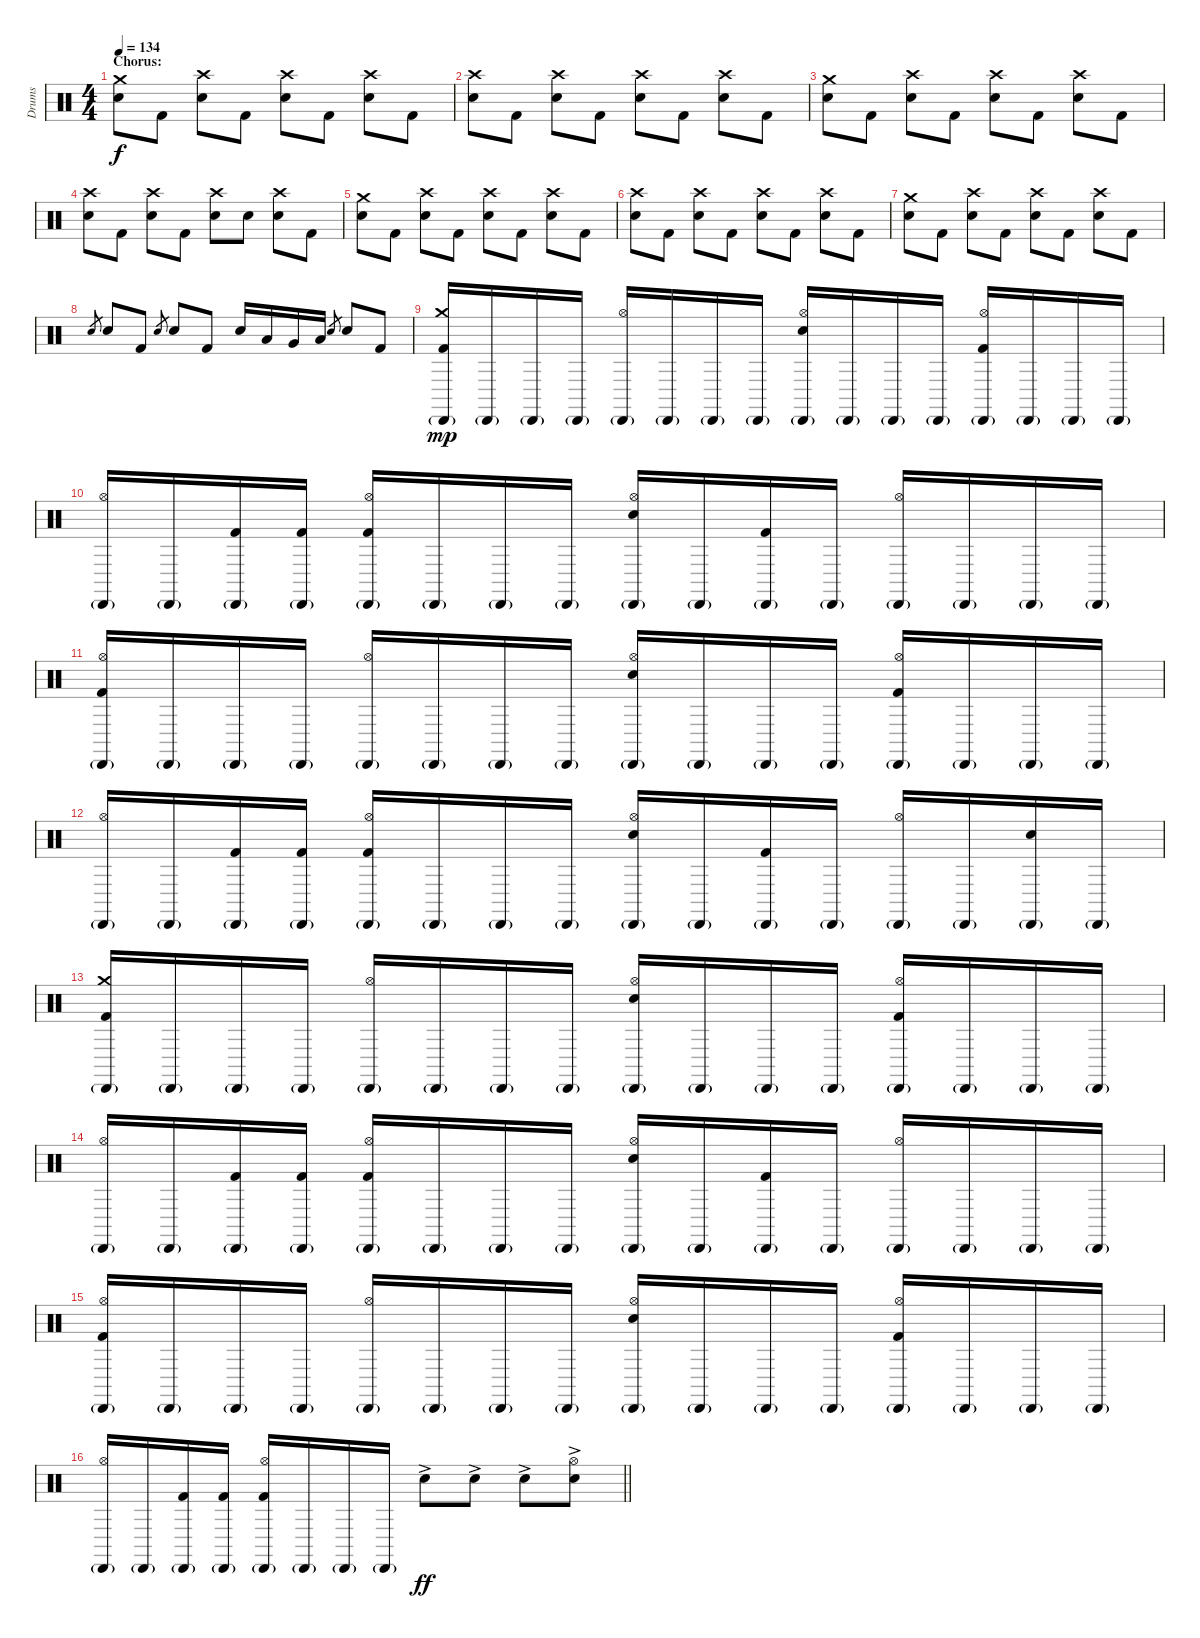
\track ("Drums" "Drums") {instrument percussion}
\staff {score}
\articulation defaults
\ts (4 4)
\section ("" "Chorus:")
\tempo 134
\clef neutral
\ks c
("Crash medium (hit)" "Electric Snare (hit)").8{dy f} "Kick (hit) 2".8 ("Crash high (hit)" "Electric Snare (hit)").8 "Kick (hit) 2".8 ("Crash high (hit)" "Electric Snare (hit)").8 "Kick (hit) 2".8 ("Crash high (hit)" "Electric Snare (hit)").8 "Kick (hit) 2".8 |
("Crash high (hit)" "Electric Snare (hit)").8 "Kick (hit) 2".8 ("Crash high (hit)" "Electric Snare (hit)").8 "Kick (hit) 2".8 ("Crash high (hit)" "Electric Snare (hit)").8 "Kick (hit) 2".8 ("Crash high (hit)" "Electric Snare (hit)").8 "Kick (hit) 2".8 |
("Crash medium (hit)" "Electric Snare (hit)").8 "Kick (hit) 2".8 ("Crash high (hit)" "Electric Snare (hit)").8 "Kick (hit) 2".8 ("Crash high (hit)" "Electric Snare (hit)").8 "Kick (hit) 2".8 ("Crash high (hit)" "Electric Snare (hit)").8 "Kick (hit) 2".8 |
("Crash high (hit)" "Electric Snare (hit)").8 "Kick (hit) 2".8 ("Crash high (hit)" "Electric Snare (hit)").8 "Kick (hit) 2".8 ("Crash high (hit)" "Electric Snare (hit)").8 "Electric Snare (hit)".8 ("Crash high (hit)" "Electric Snare (hit)").8 "Kick (hit) 2".8 |
("Crash medium (hit)" "Electric Snare (hit)").8 "Kick (hit) 2".8 ("Crash high (hit)" "Electric Snare (hit)").8 "Kick (hit) 2".8 ("Crash high (hit)" "Electric Snare (hit)").8 "Kick (hit) 2".8 ("Crash high (hit)" "Electric Snare (hit)").8 "Kick (hit) 2".8 |
("Crash high (hit)" "Electric Snare (hit)").8 "Kick (hit) 2".8 ("Crash high (hit)" "Electric Snare (hit)").8 "Kick (hit) 2".8 ("Crash high (hit)" "Electric Snare (hit)").8 "Kick (hit) 2".8 ("Crash high (hit)" "Electric Snare (hit)").8 "Kick (hit) 2".8 |
("Crash medium (hit)" "Electric Snare (hit)").8 "Kick (hit) 2".8 ("Crash high (hit)" "Electric Snare (hit)").8 "Kick (hit) 2".8 ("Crash high (hit)" "Electric Snare (hit)").8 "Kick (hit) 2".8 ("Crash high (hit)" "Electric Snare (hit)").8 "Kick (hit) 2".8 |
"Electric Snare (hit)".8{gr} "Electric Snare (hit)".8 "Kick (hit) 2".8 "Electric Snare (hit)".8{gr} "Electric Snare (hit)".8 "Kick (hit) 2".8 "Electric Snare (hit)".16 "Low Tom (hit)".16 "Very Low Tom (hit)".16 "Low Floor Tom (hit)".16 "Electric Snare (hit)".8{gr} "Electric Snare (hit)".8 "Kick (hit) 2".8 |
("Crash medium (hit)" "Cabasa (hit)"{g} "Kick (hit) 2").16{dy mp} "Cabasa (hit)"{g}.16 "Cabasa (hit)"{g}.16 "Cabasa (hit)"{g}.16 ("Hi-Hat (open)" "Cabasa (hit)"{g}).16 "Cabasa (hit)"{g}.16 "Cabasa (hit)"{g}.16 "Cabasa (hit)"{g}.16 ("Hi-Hat (open)" "Cabasa (hit)"{g} "Electric Snare (hit)").16 "Cabasa (hit)"{g}.16 "Cabasa (hit)"{g}.16 "Cabasa (hit)"{g}.16 ("Hi-Hat (open)" "Cabasa (hit)"{g} "Kick (hit) 2").16 "Cabasa (hit)"{g}.16 "Cabasa (hit)"{g}.16 "Cabasa (hit)"{g}.16 |
("Hi-Hat (open)" "Cabasa (hit)"{g}).16 "Cabasa (hit)"{g}.16 ("Cabasa (hit)"{g} "Kick (hit) 2").16 ("Cabasa (hit)"{g} "Kick (hit) 2").16 ("Hi-Hat (open)" "Cabasa (hit)"{g} "Kick (hit) 2").16 "Cabasa (hit)"{g}.16 "Cabasa (hit)"{g}.16 "Cabasa (hit)"{g}.16 ("Hi-Hat (open)" "Cabasa (hit)"{g} "Electric Snare (hit)").16 "Cabasa (hit)"{g}.16 ("Cabasa (hit)"{g} "Kick (hit) 2").16 "Cabasa (hit)"{g}.16 ("Hi-Hat (open)" "Cabasa (hit)"{g}).16 "Cabasa (hit)"{g}.16 "Cabasa (hit)"{g}.16 "Cabasa (hit)"{g}.16 |
("Hi-Hat (open)" "Cabasa (hit)"{g} "Kick (hit) 2").16 "Cabasa (hit)"{g}.16 "Cabasa (hit)"{g}.16 "Cabasa (hit)"{g}.16 ("Hi-Hat (open)" "Cabasa (hit)"{g}).16 "Cabasa (hit)"{g}.16 "Cabasa (hit)"{g}.16 "Cabasa (hit)"{g}.16 ("Hi-Hat (open)" "Cabasa (hit)"{g} "Electric Snare (hit)").16 "Cabasa (hit)"{g}.16 "Cabasa (hit)"{g}.16 "Cabasa (hit)"{g}.16 ("Hi-Hat (open)" "Cabasa (hit)"{g} "Kick (hit) 2").16 "Cabasa (hit)"{g}.16 "Cabasa (hit)"{g}.16 "Cabasa (hit)"{g}.16 |
("Hi-Hat (open)" "Cabasa (hit)"{g}).16 "Cabasa (hit)"{g}.16 ("Cabasa (hit)"{g} "Kick (hit) 2").16 ("Cabasa (hit)"{g} "Kick (hit) 2").16 ("Hi-Hat (open)" "Cabasa (hit)"{g} "Kick (hit) 2").16 "Cabasa (hit)"{g}.16 "Cabasa (hit)"{g}.16 "Cabasa (hit)"{g}.16 ("Hi-Hat (open)" "Cabasa (hit)"{g} "Electric Snare (hit)").16 "Cabasa (hit)"{g}.16 ("Cabasa (hit)"{g} "Kick (hit) 2").16 "Cabasa (hit)"{g}.16 ("Hi-Hat (open)" "Cabasa (hit)"{g}).16 "Cabasa (hit)"{g}.16 ("Cabasa (hit)"{g} "Electric Snare (hit)").16 "Cabasa (hit)"{g}.16 |
("Crash medium (hit)" "Cabasa (hit)"{g} "Kick (hit) 2").16 "Cabasa (hit)"{g}.16 "Cabasa (hit)"{g}.16 "Cabasa (hit)"{g}.16 ("Hi-Hat (open)" "Cabasa (hit)"{g}).16 "Cabasa (hit)"{g}.16 "Cabasa (hit)"{g}.16 "Cabasa (hit)"{g}.16 ("Hi-Hat (open)" "Cabasa (hit)"{g} "Electric Snare (hit)").16 "Cabasa (hit)"{g}.16 "Cabasa (hit)"{g}.16 "Cabasa (hit)"{g}.16 ("Hi-Hat (open)" "Cabasa (hit)"{g} "Kick (hit) 2").16 "Cabasa (hit)"{g}.16 "Cabasa (hit)"{g}.16 "Cabasa (hit)"{g}.16 |
("Hi-Hat (open)" "Cabasa (hit)"{g}).16 "Cabasa (hit)"{g}.16 ("Cabasa (hit)"{g} "Kick (hit) 2").16 ("Cabasa (hit)"{g} "Kick (hit) 2").16 ("Hi-Hat (open)" "Cabasa (hit)"{g} "Kick (hit) 2").16 "Cabasa (hit)"{g}.16 "Cabasa (hit)"{g}.16 "Cabasa (hit)"{g}.16 ("Hi-Hat (open)" "Cabasa (hit)"{g} "Electric Snare (hit)").16 "Cabasa (hit)"{g}.16 ("Cabasa (hit)"{g} "Kick (hit) 2").16 "Cabasa (hit)"{g}.16 ("Hi-Hat (open)" "Cabasa (hit)"{g}).16 "Cabasa (hit)"{g}.16 "Cabasa (hit)"{g}.16 "Cabasa (hit)"{g}.16 |
("Hi-Hat (open)" "Cabasa (hit)"{g} "Kick (hit) 2").16 "Cabasa (hit)"{g}.16 "Cabasa (hit)"{g}.16 "Cabasa (hit)"{g}.16 ("Hi-Hat (open)" "Cabasa (hit)"{g}).16 "Cabasa (hit)"{g}.16 "Cabasa (hit)"{g}.16 "Cabasa (hit)"{g}.16 ("Hi-Hat (open)" "Cabasa (hit)"{g} "Electric Snare (hit)").16 "Cabasa (hit)"{g}.16 "Cabasa (hit)"{g}.16 "Cabasa (hit)"{g}.16 ("Hi-Hat (open)" "Cabasa (hit)"{g} "Kick (hit) 2").16 "Cabasa (hit)"{g}.16 "Cabasa (hit)"{g}.16 "Cabasa (hit)"{g}.16 |
\barLineRight lightlight
("Hi-Hat (open)" "Cabasa (hit)"{g}).16 "Cabasa (hit)"{g}.16 ("Cabasa (hit)"{g} "Kick (hit) 2").16 ("Cabasa (hit)"{g} "Kick (hit) 2").16 ("Hi-Hat (open)" "Cabasa (hit)"{g} "Kick (hit) 2").16 "Cabasa (hit)"{g}.16 "Cabasa (hit)"{g}.16 "Cabasa (hit)"{g}.16 "Electric Snare (hit)"{ac}.8{dy ff} "Electric Snare (hit)"{ac}.8 "Electric Snare (hit)"{ac}.8 ("Hi-Hat (open)" "Electric Snare (hit)"{ac}).8
